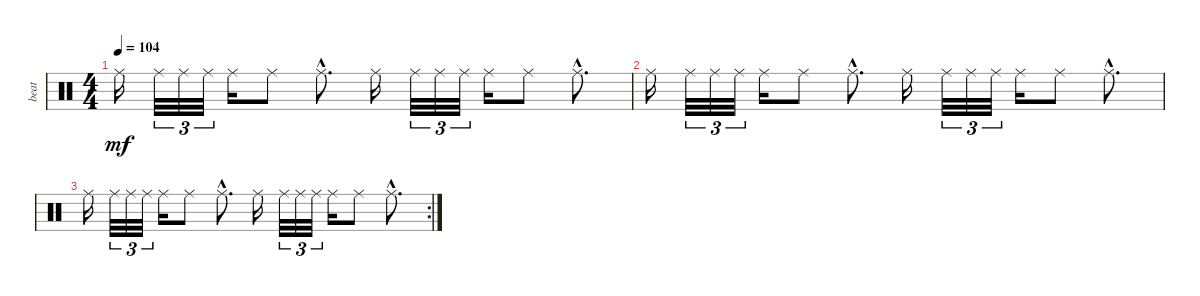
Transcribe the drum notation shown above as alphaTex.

\track ("beat" "beat") {instrument percussion}
\staff {score}
\articulation defaults
\ts (4 4)
\tempo 104
\clef neutral
\ks c "Ride (middle)".16{dy mf} "Ride (middle)".32{tu (3 2)} "Ride (middle)".32{tu (3 2)} "Ride (middle)".32{tu (3 2)} "Ride (middle)".16 "Ride (middle)".8 "Ride (middle)"{hac}.8{d} "Ride (middle)".16 "Ride (middle)".32{tu (3 2)} "Ride (middle)".32{tu (3 2)} "Ride (middle)".32{tu (3 2)} "Ride (middle)".16 "Ride (middle)".8 "Ride (middle)"{hac}.8{d}
|
"Ride (middle)".16 "Ride (middle)".32{tu (3 2)} "Ride (middle)".32{tu (3 2)} "Ride (middle)".32{tu (3 2)} "Ride (middle)".16 "Ride (middle)".8 "Ride (middle)"{hac}.8{d} "Ride (middle)".16 "Ride (middle)".32{tu (3 2)} "Ride (middle)".32{tu (3 2)} "Ride (middle)".32{tu (3 2)} "Ride (middle)".16 "Ride (middle)".8 "Ride (middle)"{hac}.8{d} |
\rc 2 "Ride (middle)".16 "Ride (middle)".32{tu (3 2)} "Ride (middle)".32{tu (3 2)} "Ride (middle)".32{tu (3 2)} "Ride (middle)".16 "Ride (middle)".8 "Ride (middle)"{hac}.8{d} "Ride (middle)".16 "Ride (middle)".32{tu (3 2)} "Ride (middle)".32{tu (3 2)} "Ride (middle)".32{tu (3 2)} "Ride (middle)".16 "Ride (middle)".8 "Ride (middle)"{hac}.8{d}
